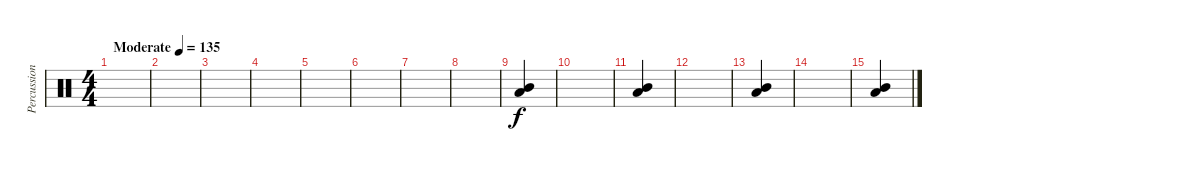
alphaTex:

\track ("Percussion" "Percussion") {instrument percussion}
\staff {score}
\articulation defaults
\ts (4 4)
\tempo (135 "Moderate")
\clef neutral
\ks c
|
|
|
|
|
|
|
|
("Mid Tom (hit)" "Low Tom (hit)").4 |
|
("Mid Tom (hit)" "Low Tom (hit)").4 |
|
("Mid Tom (hit)" "Low Tom (hit)").4 |
|
("Mid Tom (hit)" "Low Tom (hit)").4
